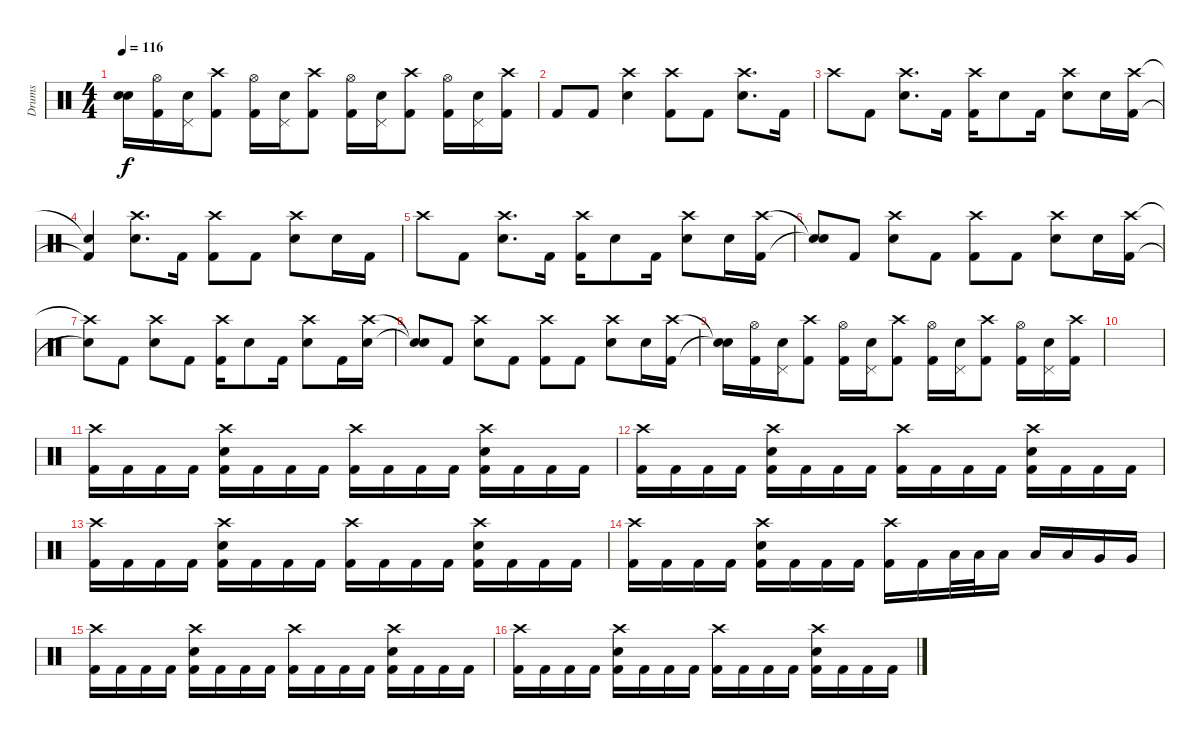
\track ("Drums" "Drums") {instrument percussion}
\staff {score}
\articulation defaults
\ts (4 4)
\tempo 116
\clef neutral
\ks c
("Snare (hit)"{t} "Snare (hit)"{t}).16{dy f} ("Hi-Hat (open)" "Kick (hit) 2").16 ("Pedal Hi-Hat (hit)" "Electric Snare (hit)").16 ("Crash high (hit)" "Kick (hit) 2").8 ("Hi-Hat (open)" "Kick (hit) 2").16 ("Pedal Hi-Hat (hit)" "Electric Snare (hit)").16 ("Crash high (hit)" "Kick (hit) 2").8 ("Hi-Hat (open)" "Kick (hit) 2").16 ("Pedal Hi-Hat (hit)" "Electric Snare (hit)").16 ("Crash high (hit)" "Kick (hit) 2").8 ("Hi-Hat (open)" "Kick (hit) 2").16 ("Pedal Hi-Hat (hit)" "Electric Snare (hit)").16 ("Crash high (hit)" "Kick (hit) 2").16 |
"Kick (hit) 2".8 "Kick (hit) 2".8 ("Crash high (hit)" "Electric Snare (hit)").4 ("Crash high (hit)" "Kick (hit) 2").8 "Kick (hit) 2".8 ("Crash high (hit)" "Electric Snare (hit)").8{d} "Kick (hit) 2".16 |
"Crash high (hit)".8 "Kick (hit) 2".8 ("Crash high (hit)" "Electric Snare (hit)").8{d} "Kick (hit) 2".16 ("Crash high (hit)" "Kick (hit) 2").16 "Electric Snare (hit)".8 "Kick (hit) 2".16 ("Crash high (hit)" "Electric Snare (hit)").8 "Electric Snare (hit)".16 ("Crash high (hit)" "Kick (hit) 2").16 |
("Snare (hit)"{t} "Kick (hit) 2"{t}).4 ("Crash high (hit)" "Electric Snare (hit)").8{d} "Kick (hit) 2".16 ("Crash high (hit)" "Kick (hit) 2").8 "Kick (hit) 2".8 ("Crash high (hit)" "Electric Snare (hit)").8 "Electric Snare (hit)".16 "Kick (hit) 2".16 |
"Crash high (hit)".8 "Kick (hit) 2".8 ("Crash high (hit)" "Electric Snare (hit)").8{d} "Kick (hit) 2".16 ("Crash high (hit)" "Kick (hit) 2").16 "Electric Snare (hit)".8 "Kick (hit) 2".16 ("Crash high (hit)" "Electric Snare (hit)").8 "Electric Snare (hit)".16 ("Crash high (hit)" "Kick (hit) 2").16 |
("Snare (hit)"{t} "Snare (hit)"{t}).8 "Kick (hit) 2".8 ("Crash high (hit)" "Electric Snare (hit)").8 "Kick (hit) 2".8 ("Crash high (hit)" "Kick (hit) 2").8 "Kick (hit) 2".8 ("Crash high (hit)" "Electric Snare (hit)").8 "Electric Snare (hit)".16 ("Crash high (hit)" "Kick (hit) 2").16 |
("Crash high (hit)"{t} "Snare (hit)"{t}).8 "Kick (hit) 2".8 ("Crash high (hit)" "Electric Snare (hit)").8 "Kick (hit) 2".8 ("Crash high (hit)" "Kick (hit) 2").16 "Electric Snare (hit)".8 "Kick (hit) 2".16 ("Crash high (hit)" "Electric Snare (hit)").8 "Kick (hit) 2".16 ("Crash high (hit)" "Electric Snare (hit)").16 |
("Snare (hit)"{t} "Snare (hit)"{t}).8 "Kick (hit) 2".8 ("Crash high (hit)" "Electric Snare (hit)").8 "Kick (hit) 2".8 ("Crash high (hit)" "Kick (hit) 2").8 "Kick (hit) 2".8 ("Crash high (hit)" "Electric Snare (hit)").8 "Electric Snare (hit)".16 ("Crash high (hit)" "Kick (hit) 2").16 |
("Snare (hit)"{t} "Snare (hit)"{t}).16 ("Hi-Hat (open)" "Kick (hit) 2").16 ("Pedal Hi-Hat (hit)" "Electric Snare (hit)").16 ("Crash high (hit)" "Kick (hit) 2").8 ("Hi-Hat (open)" "Kick (hit) 2").16 ("Pedal Hi-Hat (hit)" "Electric Snare (hit)").16 ("Crash high (hit)" "Kick (hit) 2").8 ("Hi-Hat (open)" "Kick (hit) 2").16 ("Pedal Hi-Hat (hit)" "Electric Snare (hit)").16 ("Crash high (hit)" "Kick (hit) 2").8 ("Hi-Hat (open)" "Kick (hit) 2").16 ("Pedal Hi-Hat (hit)" "Electric Snare (hit)").16 ("Crash high (hit)" "Kick (hit) 2").16 |
|
("Crash high (hit)" "Kick (hit) 2").16 "Kick (hit) 2".16 "Kick (hit) 2".16 "Kick (hit) 2".16 ("Crash high (hit)" "Electric Snare (hit)" "Kick (hit) 2").16 "Kick (hit) 2".16 "Kick (hit) 2".16 "Kick (hit) 2".16 ("Crash high (hit)" "Kick (hit) 2").16 "Kick (hit) 2".16 "Kick (hit) 2".16 "Kick (hit) 2".16 ("Crash high (hit)" "Electric Snare (hit)" "Kick (hit) 2").16 "Kick (hit) 2".16 "Kick (hit) 2".16 "Kick (hit) 2".16 |
("Crash high (hit)" "Kick (hit) 2").16 "Kick (hit) 2".16 "Kick (hit) 2".16 "Kick (hit) 2".16 ("Crash high (hit)" "Electric Snare (hit)" "Kick (hit) 2").16 "Kick (hit) 2".16 "Kick (hit) 2".16 "Kick (hit) 2".16 ("Crash high (hit)" "Kick (hit) 2").16 "Kick (hit) 2".16 "Kick (hit) 2".16 "Kick (hit) 2".16 ("Crash high (hit)" "Electric Snare (hit)" "Kick (hit) 2").16 "Kick (hit) 2".16 "Kick (hit) 2".16 "Kick (hit) 2".16 |
("Crash high (hit)" "Kick (hit) 2").16 "Kick (hit) 2".16 "Kick (hit) 2".16 "Kick (hit) 2".16 ("Crash high (hit)" "Electric Snare (hit)" "Kick (hit) 2").16 "Kick (hit) 2".16 "Kick (hit) 2".16 "Kick (hit) 2".16 ("Crash high (hit)" "Kick (hit) 2").16 "Kick (hit) 2".16 "Kick (hit) 2".16 "Kick (hit) 2".16 ("Crash high (hit)" "Electric Snare (hit)" "Kick (hit) 2").16 "Kick (hit) 2".16 "Kick (hit) 2".16 "Kick (hit) 2".16 |
("Crash high (hit)" "Kick (hit) 2").16 "Kick (hit) 2".16 "Kick (hit) 2".16 "Kick (hit) 2".16 ("Crash high (hit)" "Electric Snare (hit)" "Kick (hit) 2").16 "Kick (hit) 2".16 "Kick (hit) 2".16 "Kick (hit) 2".16 ("Crash high (hit)" "Kick (hit) 2").16 "Kick (hit) 2".16 "Low Tom (hit)".32 "Low Tom (hit)".32 "Low Tom (hit)".16 "Low Tom (hit)".16 "Low Tom (hit)".16 "Very Low Tom (hit)".16 "Very Low Tom (hit)".16 |
("Crash high (hit)" "Kick (hit) 2").16 "Kick (hit) 2".16 "Kick (hit) 2".16 "Kick (hit) 2".16 ("Crash high (hit)" "Electric Snare (hit)" "Kick (hit) 2").16 "Kick (hit) 2".16 "Kick (hit) 2".16 "Kick (hit) 2".16 ("Crash high (hit)" "Kick (hit) 2").16 "Kick (hit) 2".16 "Kick (hit) 2".16 "Kick (hit) 2".16 ("Crash high (hit)" "Electric Snare (hit)" "Kick (hit) 2").16 "Kick (hit) 2".16 "Kick (hit) 2".16 "Kick (hit) 2".16 |
("Crash high (hit)" "Kick (hit) 2").16 "Kick (hit) 2".16 "Kick (hit) 2".16 "Kick (hit) 2".16 ("Crash high (hit)" "Electric Snare (hit)" "Kick (hit) 2").16 "Kick (hit) 2".16 "Kick (hit) 2".16 "Kick (hit) 2".16 ("Crash high (hit)" "Kick (hit) 2").16 "Kick (hit) 2".16 "Kick (hit) 2".16 "Kick (hit) 2".16 ("Crash high (hit)" "Electric Snare (hit)" "Kick (hit) 2").16 "Kick (hit) 2".16 "Kick (hit) 2".16 "Kick (hit) 2".16
